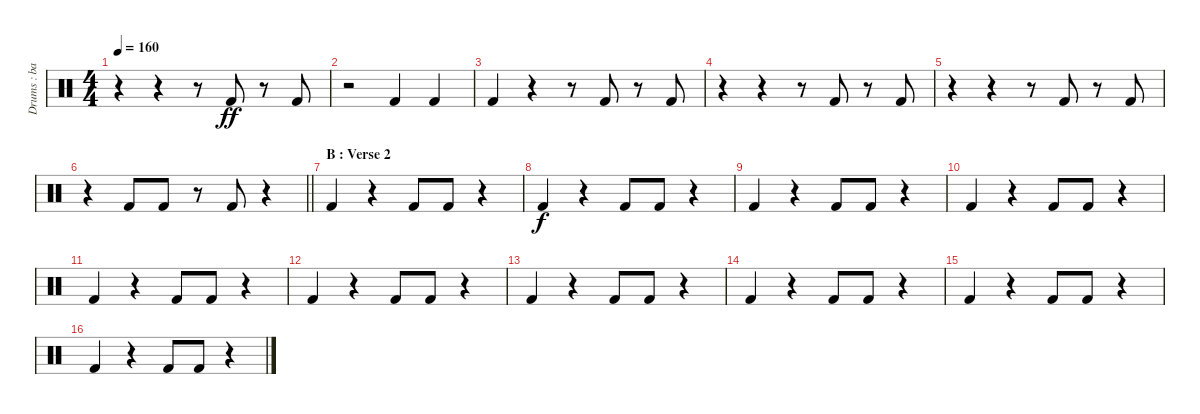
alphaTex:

\track ("Drums : bass drums" "Drums : ba") {instrument percussion}
\staff {score}
\articulation defaults
\ts (4 4)
\tempo 160
\clef neutral
\ks c
r.4{dy ff} r.4 r.8 "Kick (hit) 2".8{volume 13} r.8 "Kick (hit) 2".8{volume 13} |
r.2 "Kick (hit) 2".4{volume 13} "Kick (hit) 2".4{volume 13} |
"Kick (hit) 2".4 r.4 r.8 "Kick (hit) 2".8{volume 13} r.8 "Kick (hit) 2".8{volume 13} |
r.4 r.4 r.8 "Kick (hit) 2".8{volume 13} r.8 "Kick (hit) 2".8{volume 13} |
r.4 r.4 r.8 "Kick (hit) 2".8{volume 13} r.8 "Kick (hit) 2".8{volume 13} |
\barLineRight lightlight
r.4 "Kick (hit) 2".8{volume 13} "Kick (hit) 2".8{volume 13} r.8 "Kick (hit) 2".8{volume 13} r.4 |
\section ("" "B : Verse 2")
"Kick (hit) 2".4{volume 13} r.4 "Kick (hit) 2".8 "Kick (hit) 2".8 r.4 |
"Kick (hit) 2".4{dy f} r.4 "Kick (hit) 2".8 "Kick (hit) 2".8 r.4 |
"Kick (hit) 2".4 r.4 "Kick (hit) 2".8 "Kick (hit) 2".8 r.4 |
"Kick (hit) 2".4 r.4 "Kick (hit) 2".8 "Kick (hit) 2".8 r.4 |
"Kick (hit) 2".4 r.4 "Kick (hit) 2".8 "Kick (hit) 2".8 r.4 |
"Kick (hit) 2".4 r.4 "Kick (hit) 2".8 "Kick (hit) 2".8 r.4 |
"Kick (hit) 2".4 r.4 "Kick (hit) 2".8 "Kick (hit) 2".8 r.4 |
"Kick (hit) 2".4 r.4 "Kick (hit) 2".8 "Kick (hit) 2".8 r.4 |
"Kick (hit) 2".4 r.4 "Kick (hit) 2".8 "Kick (hit) 2".8 r.4 |
"Kick (hit) 2".4 r.4 "Kick (hit) 2".8 "Kick (hit) 2".8 r.4
